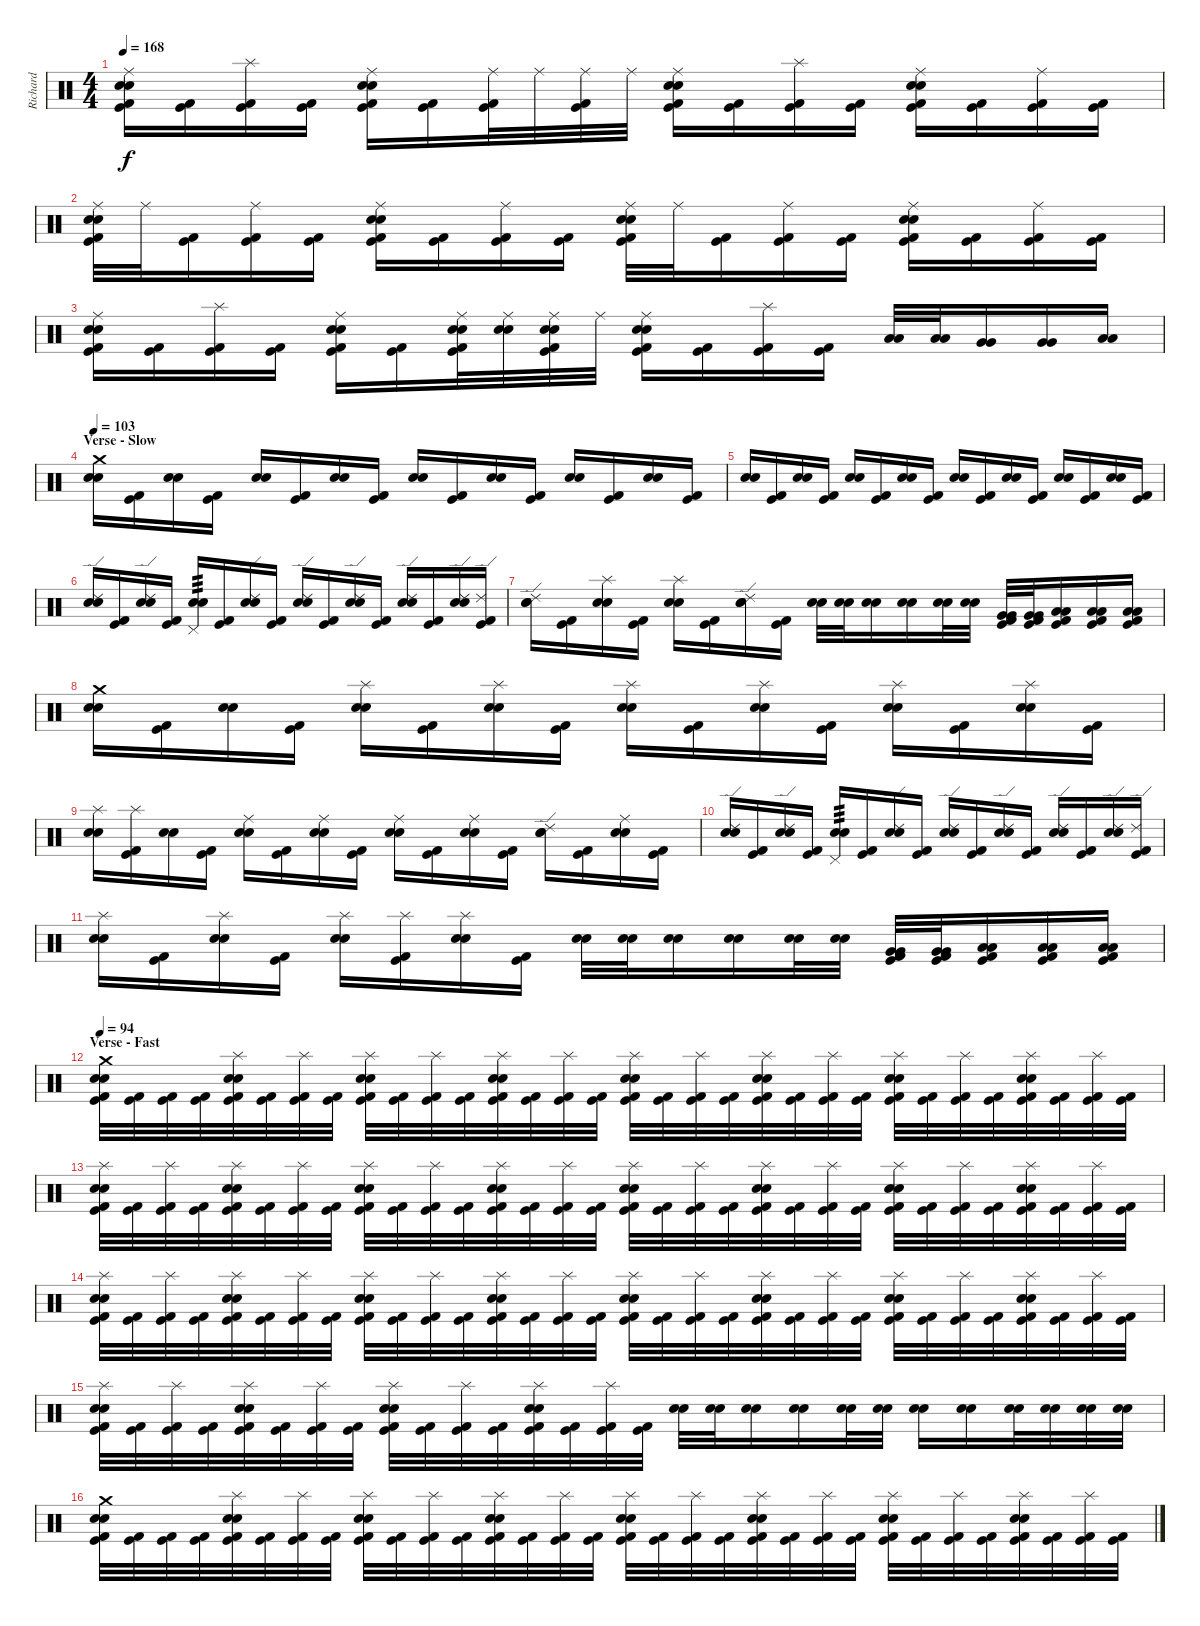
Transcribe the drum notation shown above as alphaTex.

\track ("Richard" "Richard") {instrument percussion}
\staff {score}
\articulation defaults
\ts (4 4)
\tempo 168
\clef neutral
\ks c
("Ride (middle)" "Snare (hit) 2" "Electric Snare (hit)" "Kick (hit)" "Kick (hit) 2").16{dy f} ("Kick (hit)" "Kick (hit) 2").16 ("Splash (hit)" "Kick (hit)" "Kick (hit) 2").16 ("Kick (hit)" "Kick (hit) 2").16 ("Ride (middle)" "Snare (hit) 2" "Electric Snare (hit)" "Kick (hit)" "Kick (hit) 2").16 ("Kick (hit)" "Kick (hit) 2").16 ("Ride (middle)" "Kick (hit)" "Kick (hit) 2").32 "Ride (middle)".32 ("Ride (middle)" "Kick (hit)" "Kick (hit) 2").32 "Ride (middle)".32 ("Ride (middle)" "Snare (hit) 2" "Electric Snare (hit)" "Kick (hit)" "Kick (hit) 2").16 ("Kick (hit)" "Kick (hit) 2").16 ("Splash (hit)" "Kick (hit)" "Kick (hit) 2").16 ("Kick (hit)" "Kick (hit) 2").16 ("Ride (middle)" "Snare (hit) 2" "Electric Snare (hit)" "Kick (hit)" "Kick (hit) 2").16 ("Kick (hit)" "Kick (hit) 2").16 ("Ride (middle)" "Kick (hit)" "Kick (hit) 2").16 ("Kick (hit)" "Kick (hit) 2").16 |
("Ride (middle)" "Snare (hit) 2" "Electric Snare (hit)" "Kick (hit)" "Kick (hit) 2").32 "Ride (middle)".32 ("Kick (hit)" "Kick (hit) 2").16 ("Ride (middle)" "Kick (hit)" "Kick (hit) 2").16 ("Kick (hit)" "Kick (hit) 2").16 ("Ride (middle)" "Snare (hit) 2" "Electric Snare (hit)" "Kick (hit)" "Kick (hit) 2").16 ("Kick (hit)" "Kick (hit) 2").16 ("Ride (middle)" "Kick (hit)" "Kick (hit) 2").16 ("Kick (hit)" "Kick (hit) 2").16 ("Ride (middle)" "Snare (hit) 2" "Electric Snare (hit)" "Kick (hit)" "Kick (hit) 2").32 "Ride (middle)".32 ("Kick (hit)" "Kick (hit) 2").16 ("Ride (middle)" "Kick (hit)" "Kick (hit) 2").16 ("Kick (hit)" "Kick (hit) 2").16 ("Ride (middle)" "Snare (hit) 2" "Electric Snare (hit)" "Kick (hit)" "Kick (hit) 2").16 ("Kick (hit)" "Kick (hit) 2").16 ("Ride (middle)" "Kick (hit)" "Kick (hit) 2").16 ("Kick (hit)" "Kick (hit) 2").16 |
("Ride (middle)" "Snare (hit) 2" "Electric Snare (hit)" "Kick (hit)" "Kick (hit) 2").16 ("Kick (hit)" "Kick (hit) 2").16 ("Splash (hit)" "Kick (hit)" "Kick (hit) 2").16 ("Kick (hit)" "Kick (hit) 2").16 ("Ride (middle)" "Snare (hit) 2" "Electric Snare (hit)" "Kick (hit)" "Kick (hit) 2").16 ("Kick (hit)" "Kick (hit) 2").16 ("Ride (middle)" "Snare (hit) 2" "Electric Snare (hit)" "Kick (hit)" "Kick (hit) 2").32 ("Ride (middle)" "Snare (hit) 2" "Electric Snare (hit)").32 ("Ride (middle)" "Snare (hit) 2" "Electric Snare (hit)" "Kick (hit)" "Kick (hit) 2").32 "Ride (middle)".32 ("Ride (middle)" "Snare (hit) 2" "Electric Snare (hit)" "Kick (hit)" "Kick (hit) 2").16 ("Kick (hit)" "Kick (hit) 2").16 ("Splash (hit)" "Kick (hit)" "Kick (hit) 2").16 ("Kick (hit)" "Kick (hit) 2").16 ("Low Tom (hit)" "Low Tom (hit)").32 ("Low Tom (hit)" "Low Tom (hit)").32 ("Very Low Tom (hit)" "Very Low Tom (hit)").16 ("Very Low Tom (hit)" "Very Low Tom (hit)").16 ("Low Floor Tom (hit)" "Low Floor Tom (hit)").16 |
\section ("" "Verse - Slow")
\tempo 103
("Crash medium (hit)" "Snare (hit) 2" "Electric Snare (hit)").16 ("Kick (hit)" "Kick (hit) 2").16 ("Snare (hit) 2" "Electric Snare (hit)").16 ("Kick (hit)" "Kick (hit) 2").16 ("Snare (hit) 2" "Electric Snare (hit)").16 ("Kick (hit)" "Kick (hit) 2").16 ("Snare (hit) 2" "Electric Snare (hit)").16 ("Kick (hit)" "Kick (hit) 2").16 ("Snare (hit) 2" "Electric Snare (hit)").16 ("Kick (hit)" "Kick (hit) 2").16 ("Snare (hit) 2" "Electric Snare (hit)").16 ("Kick (hit)" "Kick (hit) 2").16 ("Snare (hit) 2" "Electric Snare (hit)").16 ("Kick (hit)" "Kick (hit) 2").16 ("Snare (hit) 2" "Electric Snare (hit)").16 ("Kick (hit)" "Kick (hit) 2").16 |
("Snare (hit) 2" "Electric Snare (hit)").16 ("Kick (hit)" "Kick (hit) 2").16 ("Snare (hit) 2" "Electric Snare (hit)").16 ("Kick (hit)" "Kick (hit) 2").16 ("Snare (hit) 2" "Electric Snare (hit)").16 ("Kick (hit)" "Kick (hit) 2").16 ("Snare (hit) 2" "Electric Snare (hit)").16 ("Kick (hit)" "Kick (hit) 2").16 ("Snare (hit) 2" "Electric Snare (hit)").16 ("Kick (hit)" "Kick (hit) 2").16 ("Snare (hit) 2" "Electric Snare (hit)").16 ("Kick (hit)" "Kick (hit) 2").16 ("Snare (hit) 2" "Electric Snare (hit)").16 ("Kick (hit)" "Kick (hit) 2").16 ("Snare (hit) 2" "Electric Snare (hit)").16 ("Kick (hit)" "Kick (hit) 2").16 |
("Ride (edge) 2" "Snare (hit) 2" "Electric Snare (hit)").16 ("Kick (hit)" "Kick (hit) 2").16 ("Ride (edge) 2" "Snare (hit) 2" "Electric Snare (hit)").16 ("Kick (hit)" "Kick (hit) 2").16 ("Pedal Hi-Hat (hit)" "Snare (hit) 2" "Electric Snare (hit)").16{tp 3} ("Kick (hit)" "Kick (hit) 2").16 ("Ride (edge) 2" "Snare (hit) 2" "Electric Snare (hit)").16 ("Kick (hit)" "Kick (hit) 2").16 ("Ride (edge) 2" "Snare (hit) 2" "Electric Snare (hit)").16 ("Kick (hit)" "Kick (hit) 2").16 ("Ride (edge) 2" "Snare (hit) 2" "Electric Snare (hit)").16 ("Kick (hit)" "Kick (hit) 2").16 ("Ride (edge) 2" "Snare (hit) 2" "Electric Snare (hit)").16 ("Kick (hit)" "Kick (hit) 2").16 ("Ride (edge) 2" "Snare (hit) 2" "Electric Snare (hit)").16 ("Ride (edge) 2" "Kick (hit)" "Kick (hit) 2").16 |
("Ride (edge) 2" "Snare (hit) 2" "Electric Snare (hit)").16 ("Kick (hit)" "Kick (hit) 2").16 ("Splash (hit)" "Snare (hit) 2" "Electric Snare (hit)").16 ("Kick (hit)" "Kick (hit) 2").16 ("Splash (hit)" "Snare (hit) 2" "Electric Snare (hit)").16 ("Kick (hit)" "Kick (hit) 2").16 ("Ride (edge) 2" "Snare (hit) 2" "Electric Snare (hit)").16 ("Kick (hit)" "Kick (hit) 2").16 ("Snare (hit) 2" "Electric Snare (hit)").32 ("Snare (hit) 2" "Electric Snare (hit)").32 ("Snare (hit) 2" "Electric Snare (hit)").16 ("Snare (hit) 2" "Electric Snare (hit)").16 ("Snare (hit) 2" "Electric Snare (hit)").32 ("Snare (hit) 2" "Electric Snare (hit)").32 ("Very Low Tom (hit)" "Very Low Tom (hit)" "Kick (hit)" "Kick (hit) 2").32 ("Very Low Tom (hit)" "Very Low Tom (hit)" "Kick (hit)" "Kick (hit) 2").32 ("Low Floor Tom (hit)" "Low Floor Tom (hit)" "Kick (hit)" "Kick (hit) 2").16 ("Low Floor Tom (hit)" "Low Floor Tom (hit)" "Kick (hit)" "Kick (hit) 2").16 ("Low Floor Tom (hit)" "Low Floor Tom (hit)" "Kick (hit)" "Kick (hit) 2").16 |
("Crash medium (hit)" "Snare (hit) 2" "Electric Snare (hit)").16 ("Kick (hit)" "Kick (hit) 2").16 ("Snare (hit) 2" "Electric Snare (hit)").16 ("Kick (hit)" "Kick (hit) 2").16 ("Splash (hit)" "Snare (hit) 2" "Electric Snare (hit)").16 ("Kick (hit)" "Kick (hit) 2").16 ("Splash (hit)" "Snare (hit) 2" "Electric Snare (hit)").16 ("Kick (hit)" "Kick (hit) 2").16 ("Splash (hit)" "Snare (hit) 2" "Electric Snare (hit)").16 ("Kick (hit)" "Kick (hit) 2").16 ("Splash (hit)" "Snare (hit) 2" "Electric Snare (hit)").16 ("Kick (hit)" "Kick (hit) 2").16 ("Splash (hit)" "Snare (hit) 2" "Electric Snare (hit)").16 ("Kick (hit)" "Kick (hit) 2").16 ("Splash (hit)" "Snare (hit) 2" "Electric Snare (hit)").16 ("Kick (hit)" "Kick (hit) 2").16 |
("Splash (hit)" "Snare (hit) 2" "Electric Snare (hit)").16 ("Splash (hit)" "Kick (hit)" "Kick (hit) 2").16 ("Snare (hit) 2" "Electric Snare (hit)").16 ("Kick (hit)" "Kick (hit) 2").16 ("Ride (middle)" "Snare (hit) 2" "Electric Snare (hit)").16 ("Kick (hit)" "Kick (hit) 2").16 ("Ride (middle)" "Snare (hit) 2" "Electric Snare (hit)").16 ("Kick (hit)" "Kick (hit) 2").16 ("Ride (middle)" "Snare (hit) 2" "Electric Snare (hit)").16 ("Kick (hit)" "Kick (hit) 2").16 ("Ride (middle)" "Snare (hit) 2" "Electric Snare (hit)").16 ("Kick (hit)" "Kick (hit) 2").16 ("Ride (edge) 2" "Snare (hit) 2" "Electric Snare (hit)").16 ("Kick (hit)" "Kick (hit) 2").16 ("Ride (middle)" "Snare (hit) 2" "Electric Snare (hit)").16 ("Kick (hit)" "Kick (hit) 2").16 |
("Ride (edge) 2" "Snare (hit) 2" "Electric Snare (hit)").16 ("Kick (hit)" "Kick (hit) 2").16 ("Ride (edge) 2" "Snare (hit) 2" "Electric Snare (hit)").16 ("Kick (hit)" "Kick (hit) 2").16 ("Pedal Hi-Hat (hit)" "Snare (hit) 2" "Electric Snare (hit)").16{tp 3} ("Kick (hit)" "Kick (hit) 2").16 ("Ride (edge) 2" "Snare (hit) 2" "Electric Snare (hit)").16 ("Kick (hit)" "Kick (hit) 2").16 ("Ride (edge) 2" "Snare (hit) 2" "Electric Snare (hit)").16 ("Kick (hit)" "Kick (hit) 2").16 ("Ride (edge) 2" "Snare (hit) 2" "Electric Snare (hit)").16 ("Kick (hit)" "Kick (hit) 2").16 ("Ride (edge) 2" "Snare (hit) 2" "Electric Snare (hit)").16 ("Kick (hit)" "Kick (hit) 2").16 ("Ride (edge) 2" "Snare (hit) 2" "Electric Snare (hit)").16 ("Ride (edge) 2" "Kick (hit)" "Kick (hit) 2").16 |
("Splash (hit)" "Snare (hit) 2" "Electric Snare (hit)").16 ("Kick (hit)" "Kick (hit) 2").16 ("Splash (hit)" "Snare (hit) 2" "Electric Snare (hit)").16 ("Kick (hit)" "Kick (hit) 2").16 ("Splash (hit)" "Snare (hit) 2" "Electric Snare (hit)").16 ("Splash (hit)" "Kick (hit)" "Kick (hit) 2").16 ("Splash (hit)" "Snare (hit) 2" "Electric Snare (hit)").16 ("Kick (hit)" "Kick (hit) 2").16 ("Snare (hit) 2" "Electric Snare (hit)").32 ("Snare (hit) 2" "Electric Snare (hit)").32 ("Snare (hit) 2" "Electric Snare (hit)").16 ("Snare (hit) 2" "Electric Snare (hit)").16 ("Snare (hit) 2" "Electric Snare (hit)").32 ("Snare (hit) 2" "Electric Snare (hit)").32 ("Very Low Tom (hit)" "Very Low Tom (hit)" "Kick (hit)" "Kick (hit) 2").32 ("Very Low Tom (hit)" "Very Low Tom (hit)" "Kick (hit)" "Kick (hit) 2").32 ("Low Floor Tom (hit)" "Low Floor Tom (hit)" "Kick (hit)" "Kick (hit) 2").16 ("Low Floor Tom (hit)" "Low Floor Tom (hit)" "Kick (hit)" "Kick (hit) 2").16 ("Low Floor Tom (hit)" "Low Floor Tom (hit)" "Kick (hit)" "Kick (hit) 2").16 |
\section ("" "Verse - Fast")
\tempo 94
("Crash medium (hit)" "Snare (hit) 2" "Electric Snare (hit)" "Kick (hit)" "Kick (hit) 2").32 ("Kick (hit)" "Kick (hit) 2").32 ("Kick (hit)" "Kick (hit) 2").32 ("Kick (hit)" "Kick (hit) 2").32 ("Splash (hit)" "Snare (hit) 2" "Electric Snare (hit)" "Kick (hit)" "Kick (hit) 2").32 ("Kick (hit)" "Kick (hit) 2").32 ("Splash (hit)" "Kick (hit)" "Kick (hit) 2").32 ("Kick (hit)" "Kick (hit) 2").32 ("Splash (hit)" "Snare (hit) 2" "Electric Snare (hit)" "Kick (hit)" "Kick (hit) 2").32 ("Kick (hit)" "Kick (hit) 2").32 ("Splash (hit)" "Kick (hit)" "Kick (hit) 2").32 ("Kick (hit)" "Kick (hit) 2").32 ("Splash (hit)" "Snare (hit) 2" "Electric Snare (hit)" "Kick (hit)" "Kick (hit) 2").32 ("Kick (hit)" "Kick (hit) 2").32 ("Splash (hit)" "Kick (hit)" "Kick (hit) 2").32 ("Kick (hit)" "Kick (hit) 2").32 ("Splash (hit)" "Snare (hit) 2" "Electric Snare (hit)" "Kick (hit)" "Kick (hit) 2").32 ("Kick (hit)" "Kick (hit) 2").32 ("Splash (hit)" "Kick (hit)" "Kick (hit) 2").32 ("Kick (hit)" "Kick (hit) 2").32 ("Splash (hit)" "Snare (hit) 2" "Electric Snare (hit)" "Kick (hit)" "Kick (hit) 2").32 ("Kick (hit)" "Kick (hit) 2").32 ("Splash (hit)" "Kick (hit)" "Kick (hit) 2").32 ("Kick (hit)" "Kick (hit) 2").32 ("Splash (hit)" "Snare (hit) 2" "Electric Snare (hit)" "Kick (hit)" "Kick (hit) 2").32 ("Kick (hit)" "Kick (hit) 2").32 ("Splash (hit)" "Kick (hit)" "Kick (hit) 2").32 ("Kick (hit)" "Kick (hit) 2").32 ("Splash (hit)" "Snare (hit) 2" "Electric Snare (hit)" "Kick (hit)" "Kick (hit) 2").32 ("Kick (hit)" "Kick (hit) 2").32 ("Splash (hit)" "Kick (hit)" "Kick (hit) 2").32 ("Kick (hit)" "Kick (hit) 2").32 |
("Splash (hit)" "Snare (hit) 2" "Electric Snare (hit)" "Kick (hit)" "Kick (hit) 2").32 ("Kick (hit)" "Kick (hit) 2").32 ("Splash (hit)" "Kick (hit)" "Kick (hit) 2").32 ("Kick (hit)" "Kick (hit) 2").32 ("Splash (hit)" "Snare (hit) 2" "Electric Snare (hit)" "Kick (hit)" "Kick (hit) 2").32 ("Kick (hit)" "Kick (hit) 2").32 ("Splash (hit)" "Kick (hit)" "Kick (hit) 2").32 ("Kick (hit)" "Kick (hit) 2").32 ("Splash (hit)" "Snare (hit) 2" "Electric Snare (hit)" "Kick (hit)" "Kick (hit) 2").32 ("Kick (hit)" "Kick (hit) 2").32 ("Splash (hit)" "Kick (hit)" "Kick (hit) 2").32 ("Kick (hit)" "Kick (hit) 2").32 ("Splash (hit)" "Snare (hit) 2" "Electric Snare (hit)" "Kick (hit)" "Kick (hit) 2").32 ("Kick (hit)" "Kick (hit) 2").32 ("Splash (hit)" "Kick (hit)" "Kick (hit) 2").32 ("Kick (hit)" "Kick (hit) 2").32 ("Splash (hit)" "Snare (hit) 2" "Electric Snare (hit)" "Kick (hit)" "Kick (hit) 2").32 ("Kick (hit)" "Kick (hit) 2").32 ("Splash (hit)" "Kick (hit)" "Kick (hit) 2").32 ("Kick (hit)" "Kick (hit) 2").32 ("Splash (hit)" "Snare (hit) 2" "Electric Snare (hit)" "Kick (hit)" "Kick (hit) 2").32 ("Kick (hit)" "Kick (hit) 2").32 ("Splash (hit)" "Kick (hit)" "Kick (hit) 2").32 ("Kick (hit)" "Kick (hit) 2").32 ("Splash (hit)" "Snare (hit) 2" "Electric Snare (hit)" "Kick (hit)" "Kick (hit) 2").32 ("Kick (hit)" "Kick (hit) 2").32 ("Splash (hit)" "Kick (hit)" "Kick (hit) 2").32 ("Kick (hit)" "Kick (hit) 2").32 ("Splash (hit)" "Snare (hit) 2" "Electric Snare (hit)" "Kick (hit)" "Kick (hit) 2").32 ("Kick (hit)" "Kick (hit) 2").32 ("Splash (hit)" "Kick (hit)" "Kick (hit) 2").32 ("Kick (hit)" "Kick (hit) 2").32 |
("Splash (hit)" "Snare (hit) 2" "Electric Snare (hit)" "Kick (hit)" "Kick (hit) 2").32 ("Kick (hit)" "Kick (hit) 2").32 ("Splash (hit)" "Kick (hit)" "Kick (hit) 2").32 ("Kick (hit)" "Kick (hit) 2").32 ("Splash (hit)" "Snare (hit) 2" "Electric Snare (hit)" "Kick (hit)" "Kick (hit) 2").32 ("Kick (hit)" "Kick (hit) 2").32 ("Splash (hit)" "Kick (hit)" "Kick (hit) 2").32 ("Kick (hit)" "Kick (hit) 2").32 ("Splash (hit)" "Snare (hit) 2" "Electric Snare (hit)" "Kick (hit)" "Kick (hit) 2").32 ("Kick (hit)" "Kick (hit) 2").32 ("Splash (hit)" "Kick (hit)" "Kick (hit) 2").32 ("Kick (hit)" "Kick (hit) 2").32 ("Splash (hit)" "Snare (hit) 2" "Electric Snare (hit)" "Kick (hit)" "Kick (hit) 2").32 ("Kick (hit)" "Kick (hit) 2").32 ("Splash (hit)" "Kick (hit)" "Kick (hit) 2").32 ("Kick (hit)" "Kick (hit) 2").32 ("Splash (hit)" "Snare (hit) 2" "Electric Snare (hit)" "Kick (hit)" "Kick (hit) 2").32 ("Kick (hit)" "Kick (hit) 2").32 ("Splash (hit)" "Kick (hit)" "Kick (hit) 2").32 ("Kick (hit)" "Kick (hit) 2").32 ("Splash (hit)" "Snare (hit) 2" "Electric Snare (hit)" "Kick (hit)" "Kick (hit) 2").32 ("Kick (hit)" "Kick (hit) 2").32 ("Splash (hit)" "Kick (hit)" "Kick (hit) 2").32 ("Kick (hit)" "Kick (hit) 2").32 ("Splash (hit)" "Snare (hit) 2" "Electric Snare (hit)" "Kick (hit)" "Kick (hit) 2").32 ("Kick (hit)" "Kick (hit) 2").32 ("Splash (hit)" "Kick (hit)" "Kick (hit) 2").32 ("Kick (hit)" "Kick (hit) 2").32 ("Splash (hit)" "Snare (hit) 2" "Electric Snare (hit)" "Kick (hit)" "Kick (hit) 2").32 ("Kick (hit)" "Kick (hit) 2").32 ("Splash (hit)" "Kick (hit)" "Kick (hit) 2").32 ("Kick (hit)" "Kick (hit) 2").32 |
("Splash (hit)" "Snare (hit) 2" "Electric Snare (hit)" "Kick (hit)" "Kick (hit) 2").32 ("Kick (hit)" "Kick (hit) 2").32 ("Splash (hit)" "Kick (hit)" "Kick (hit) 2").32 ("Kick (hit)" "Kick (hit) 2").32 ("Splash (hit)" "Snare (hit) 2" "Electric Snare (hit)" "Kick (hit)" "Kick (hit) 2").32 ("Kick (hit)" "Kick (hit) 2").32 ("Splash (hit)" "Kick (hit)" "Kick (hit) 2").32 ("Kick (hit)" "Kick (hit) 2").32 ("Splash (hit)" "Snare (hit) 2" "Electric Snare (hit)" "Kick (hit)" "Kick (hit) 2").32 ("Kick (hit)" "Kick (hit) 2").32 ("Splash (hit)" "Kick (hit)" "Kick (hit) 2").32 ("Kick (hit)" "Kick (hit) 2").32 ("Splash (hit)" "Snare (hit) 2" "Electric Snare (hit)" "Kick (hit)" "Kick (hit) 2").32 ("Kick (hit)" "Kick (hit) 2").32 ("Splash (hit)" "Kick (hit)" "Kick (hit) 2").32 ("Kick (hit)" "Kick (hit) 2").32 ("Snare (hit) 2" "Electric Snare (hit)").32 ("Snare (hit) 2" "Electric Snare (hit)").32 ("Snare (hit) 2" "Electric Snare (hit)").16 ("Snare (hit) 2" "Electric Snare (hit)").16 ("Snare (hit) 2" "Electric Snare (hit)").32 ("Snare (hit) 2" "Electric Snare (hit)").32 ("Snare (hit) 2" "Electric Snare (hit)").16 ("Snare (hit) 2" "Electric Snare (hit)").16 ("Snare (hit) 2" "Electric Snare (hit)").32 ("Snare (hit) 2" "Electric Snare (hit)").32 ("Snare (hit) 2" "Electric Snare (hit)").32 ("Snare (hit) 2" "Electric Snare (hit)").32 |
("Crash medium (hit)" "Snare (hit) 2" "Electric Snare (hit)" "Kick (hit)" "Kick (hit) 2").32 ("Kick (hit)" "Kick (hit) 2").32 ("Kick (hit)" "Kick (hit) 2").32 ("Kick (hit)" "Kick (hit) 2").32 ("Splash (hit)" "Snare (hit) 2" "Electric Snare (hit)" "Kick (hit)" "Kick (hit) 2").32 ("Kick (hit)" "Kick (hit) 2").32 ("Splash (hit)" "Kick (hit)" "Kick (hit) 2").32 ("Kick (hit)" "Kick (hit) 2").32 ("Splash (hit)" "Snare (hit) 2" "Electric Snare (hit)" "Kick (hit)" "Kick (hit) 2").32 ("Kick (hit)" "Kick (hit) 2").32 ("Splash (hit)" "Kick (hit)" "Kick (hit) 2").32 ("Kick (hit)" "Kick (hit) 2").32 ("Splash (hit)" "Snare (hit) 2" "Electric Snare (hit)" "Kick (hit)" "Kick (hit) 2").32 ("Kick (hit)" "Kick (hit) 2").32 ("Splash (hit)" "Kick (hit)" "Kick (hit) 2").32 ("Kick (hit)" "Kick (hit) 2").32 ("Splash (hit)" "Snare (hit) 2" "Electric Snare (hit)" "Kick (hit)" "Kick (hit) 2").32 ("Kick (hit)" "Kick (hit) 2").32 ("Splash (hit)" "Kick (hit)" "Kick (hit) 2").32 ("Kick (hit)" "Kick (hit) 2").32 ("Splash (hit)" "Snare (hit) 2" "Electric Snare (hit)" "Kick (hit)" "Kick (hit) 2").32 ("Kick (hit)" "Kick (hit) 2").32 ("Splash (hit)" "Kick (hit)" "Kick (hit) 2").32 ("Kick (hit)" "Kick (hit) 2").32 ("Splash (hit)" "Snare (hit) 2" "Electric Snare (hit)" "Kick (hit)" "Kick (hit) 2").32 ("Kick (hit)" "Kick (hit) 2").32 ("Splash (hit)" "Kick (hit)" "Kick (hit) 2").32 ("Kick (hit)" "Kick (hit) 2").32 ("Splash (hit)" "Snare (hit) 2" "Electric Snare (hit)" "Kick (hit)" "Kick (hit) 2").32 ("Kick (hit)" "Kick (hit) 2").32 ("Splash (hit)" "Kick (hit)" "Kick (hit) 2").32 ("Kick (hit)" "Kick (hit) 2").32
